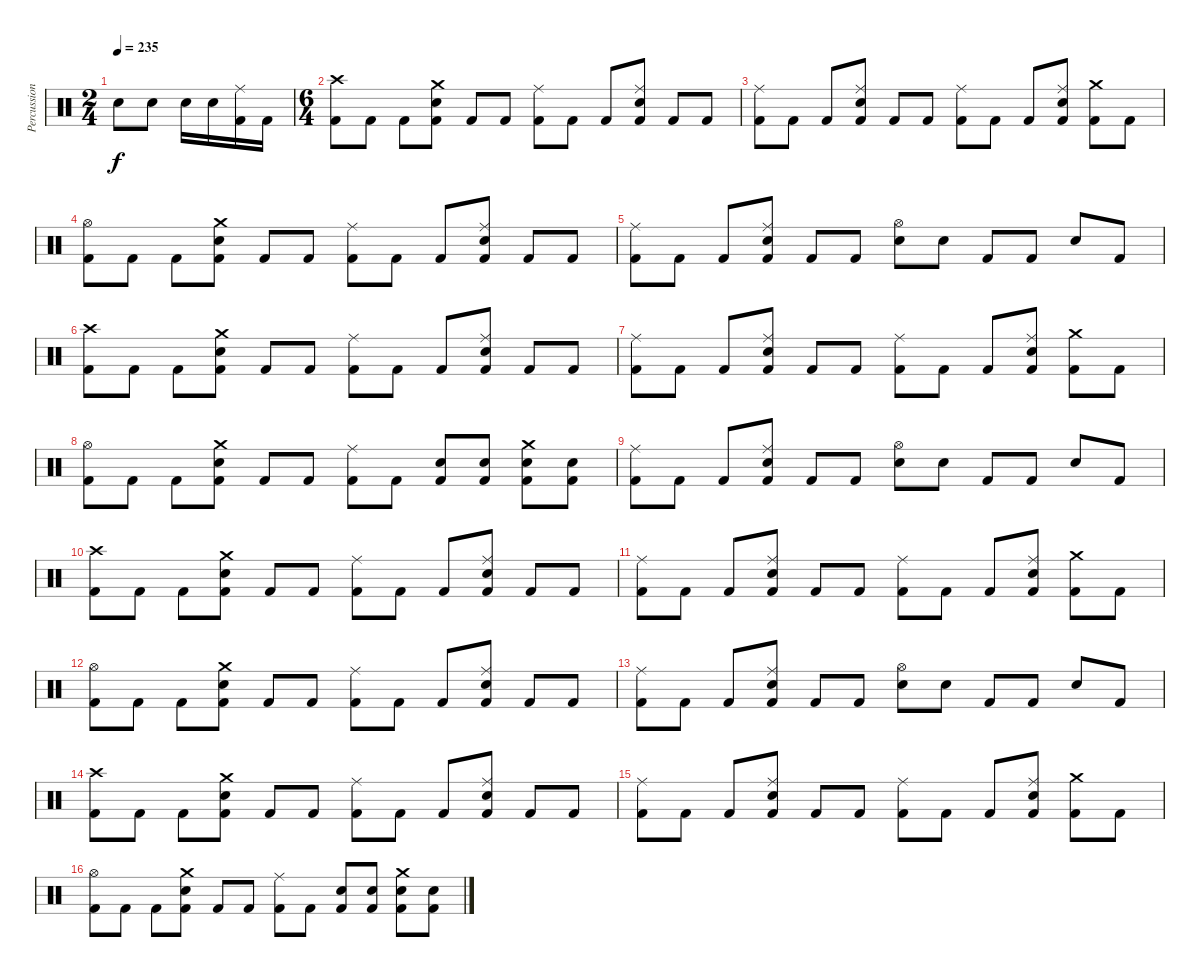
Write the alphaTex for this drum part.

\track ("Percussion" "Percussion") {instrument percussion}
\staff {score}
\articulation defaults
\ts (2 4)
\tempo 235
\clef neutral
\ks c "Electric Snare (hit)".8{dy f} "Electric Snare (hit)".8 "Electric Snare (hit)".16 "Electric Snare (hit)".16
("Ride (middle)" "Kick (hit) 2").16 "Kick (hit) 2".16 |
\ts (6 4)
("Crash high (hit)" "Kick (hit) 2").8 "Kick (hit) 2".8 "Kick (hit) 2".8 ("Crash medium (hit)" "Electric Snare (hit)" "Kick (hit) 2").8 "Kick (hit) 2".8 "Kick (hit) 2".8 ("Ride (middle)" "Kick (hit) 2").8 "Kick (hit) 2".8 "Kick (hit) 2".8 ("Ride (middle)" "Electric Snare (hit)" "Kick (hit) 2").8 "Kick (hit) 2".8 "Kick (hit) 2".8 |
("Ride (middle)" "Kick (hit) 2").8 "Kick (hit) 2".8 "Kick (hit) 2".8 ("Ride (middle)" "Electric Snare (hit)" "Kick (hit) 2").8 "Kick (hit) 2".8 "Kick (hit) 2".8 ("Ride (middle)" "Kick (hit) 2").8 "Kick (hit) 2".8 "Kick (hit) 2".8 ("Ride (middle)" "Electric Snare (hit)" "Kick (hit) 2").8 ("Crash medium (hit)" "Kick (hit) 2").8 "Kick (hit) 2".8 |
("Hi-Hat (open)" "Kick (hit) 2").8 "Kick (hit) 2".8 "Kick (hit) 2".8 ("Crash medium (hit)" "Electric Snare (hit)" "Kick (hit) 2").8 "Kick (hit) 2".8 "Kick (hit) 2".8 ("Ride (middle)" "Kick (hit) 2").8 "Kick (hit) 2".8 "Kick (hit) 2".8 ("Ride (middle)" "Electric Snare (hit)" "Kick (hit) 2").8 "Kick (hit) 2".8 "Kick (hit) 2".8 |
("Ride (middle)" "Kick (hit) 2").8 "Kick (hit) 2".8 "Kick (hit) 2".8 ("Ride (middle)" "Electric Snare (hit)" "Kick (hit) 2").8 "Kick (hit) 2".8 "Kick (hit) 2".8 ("Hi-Hat (open)" "Electric Snare (hit)").8 "Electric Snare (hit)".8 "Kick (hit) 2".8 "Kick (hit) 2".8 "Electric Snare (hit)".8 "Kick (hit) 2".8 |
("Crash high (hit)" "Kick (hit) 2").8 "Kick (hit) 2".8 "Kick (hit) 2".8 ("Crash medium (hit)" "Electric Snare (hit)" "Kick (hit) 2").8 "Kick (hit) 2".8 "Kick (hit) 2".8 ("Ride (middle)" "Kick (hit) 2").8 "Kick (hit) 2".8 "Kick (hit) 2".8 ("Ride (middle)" "Electric Snare (hit)" "Kick (hit) 2").8 "Kick (hit) 2".8 "Kick (hit) 2".8 |
("Ride (middle)" "Kick (hit) 2").8 "Kick (hit) 2".8 "Kick (hit) 2".8 ("Ride (middle)" "Electric Snare (hit)" "Kick (hit) 2").8 "Kick (hit) 2".8 "Kick (hit) 2".8 ("Ride (middle)" "Kick (hit) 2").8 "Kick (hit) 2".8 "Kick (hit) 2".8 ("Ride (middle)" "Electric Snare (hit)" "Kick (hit) 2").8 ("Crash medium (hit)" "Kick (hit) 2").8 "Kick (hit) 2".8 |
("Hi-Hat (open)" "Kick (hit) 2").8 "Kick (hit) 2".8 "Kick (hit) 2".8 ("Crash medium (hit)" "Electric Snare (hit)" "Kick (hit) 2").8 "Kick (hit) 2".8 "Kick (hit) 2".8 ("Ride (middle)" "Kick (hit) 2").8 "Kick (hit) 2".8 ("Electric Snare (hit)" "Kick (hit) 2").8 ("Electric Snare (hit)" "Kick (hit) 2").8 ("Crash medium (hit)" "Electric Snare (hit)" "Kick (hit) 2").8 ("Electric Snare (hit)" "Kick (hit) 2").8 |
("Ride (middle)" "Kick (hit) 2").8 "Kick (hit) 2".8 "Kick (hit) 2".8 ("Ride (middle)" "Electric Snare (hit)" "Kick (hit) 2").8 "Kick (hit) 2".8 "Kick (hit) 2".8 ("Hi-Hat (open)" "Electric Snare (hit)").8 "Electric Snare (hit)".8 "Kick (hit) 2".8 "Kick (hit) 2".8 "Electric Snare (hit)".8 "Kick (hit) 2".8 |
("Crash high (hit)" "Kick (hit) 2").8 "Kick (hit) 2".8 "Kick (hit) 2".8 ("Crash medium (hit)" "Electric Snare (hit)" "Kick (hit) 2").8 "Kick (hit) 2".8 "Kick (hit) 2".8 ("Ride (middle)" "Kick (hit) 2").8 "Kick (hit) 2".8 "Kick (hit) 2".8 ("Ride (middle)" "Electric Snare (hit)" "Kick (hit) 2").8 "Kick (hit) 2".8 "Kick (hit) 2".8 |
("Ride (middle)" "Kick (hit) 2").8 "Kick (hit) 2".8 "Kick (hit) 2".8 ("Ride (middle)" "Electric Snare (hit)" "Kick (hit) 2").8 "Kick (hit) 2".8 "Kick (hit) 2".8 ("Ride (middle)" "Kick (hit) 2").8 "Kick (hit) 2".8 "Kick (hit) 2".8 ("Ride (middle)" "Electric Snare (hit)" "Kick (hit) 2").8 ("Crash medium (hit)" "Kick (hit) 2").8 "Kick (hit) 2".8 |
("Hi-Hat (open)" "Kick (hit) 2").8 "Kick (hit) 2".8 "Kick (hit) 2".8 ("Crash medium (hit)" "Electric Snare (hit)" "Kick (hit) 2").8 "Kick (hit) 2".8 "Kick (hit) 2".8 ("Ride (middle)" "Kick (hit) 2").8 "Kick (hit) 2".8 "Kick (hit) 2".8 ("Ride (middle)" "Electric Snare (hit)" "Kick (hit) 2").8 "Kick (hit) 2".8 "Kick (hit) 2".8 |
("Ride (middle)" "Kick (hit) 2").8 "Kick (hit) 2".8 "Kick (hit) 2".8 ("Ride (middle)" "Electric Snare (hit)" "Kick (hit) 2").8 "Kick (hit) 2".8 "Kick (hit) 2".8 ("Hi-Hat (open)" "Electric Snare (hit)").8 "Electric Snare (hit)".8 "Kick (hit) 2".8 "Kick (hit) 2".8 "Electric Snare (hit)".8 "Kick (hit) 2".8 |
("Crash high (hit)" "Kick (hit) 2").8 "Kick (hit) 2".8 "Kick (hit) 2".8 ("Crash medium (hit)" "Electric Snare (hit)" "Kick (hit) 2").8 "Kick (hit) 2".8 "Kick (hit) 2".8 ("Ride (middle)" "Kick (hit) 2").8 "Kick (hit) 2".8 "Kick (hit) 2".8 ("Ride (middle)" "Electric Snare (hit)" "Kick (hit) 2").8 "Kick (hit) 2".8 "Kick (hit) 2".8 |
("Ride (middle)" "Kick (hit) 2").8 "Kick (hit) 2".8 "Kick (hit) 2".8 ("Ride (middle)" "Electric Snare (hit)" "Kick (hit) 2").8 "Kick (hit) 2".8 "Kick (hit) 2".8 ("Ride (middle)" "Kick (hit) 2").8 "Kick (hit) 2".8 "Kick (hit) 2".8 ("Ride (middle)" "Electric Snare (hit)" "Kick (hit) 2").8 ("Crash medium (hit)" "Kick (hit) 2").8 "Kick (hit) 2".8 |
("Hi-Hat (open)" "Kick (hit) 2").8 "Kick (hit) 2".8 "Kick (hit) 2".8 ("Crash medium (hit)" "Electric Snare (hit)" "Kick (hit) 2").8 "Kick (hit) 2".8 "Kick (hit) 2".8 ("Ride (middle)" "Kick (hit) 2").8 "Kick (hit) 2".8 ("Electric Snare (hit)" "Kick (hit) 2").8 ("Electric Snare (hit)" "Kick (hit) 2").8 ("Crash medium (hit)" "Electric Snare (hit)" "Kick (hit) 2").8 ("Electric Snare (hit)" "Kick (hit) 2").8
